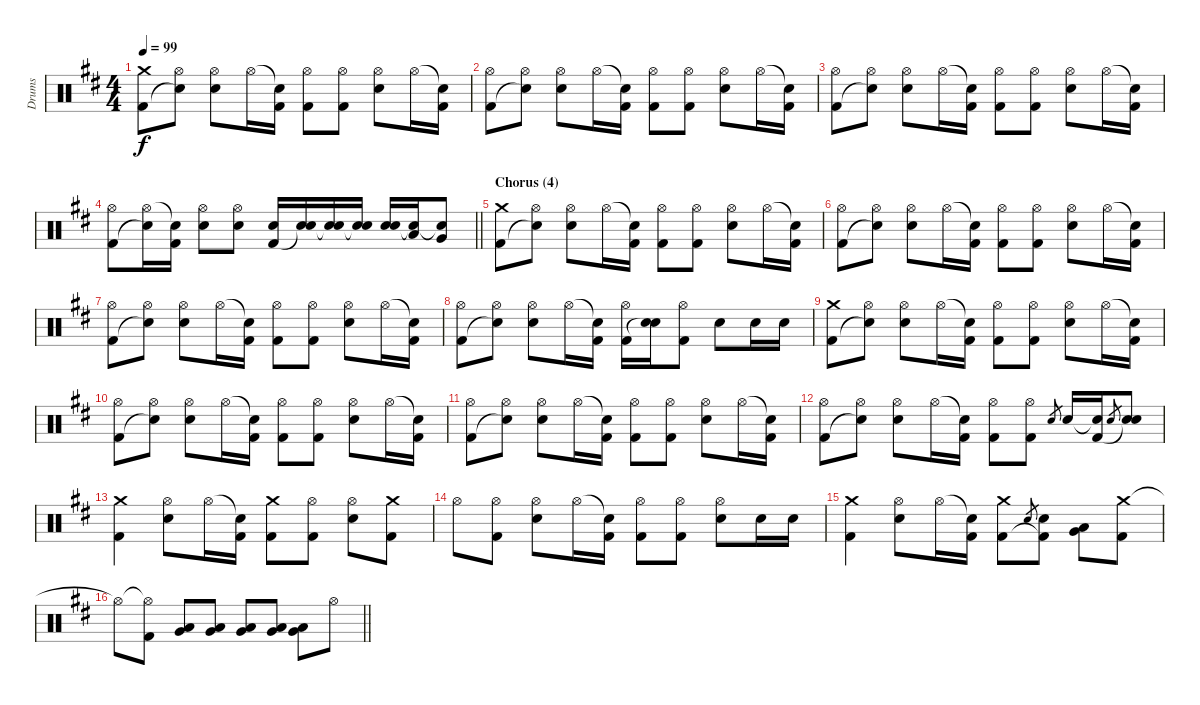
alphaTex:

\track ("Drums" "Drums") {instrument percussion}
\staff {score}
\articulation defaults
\ts (4 4)
\tempo 99
\clef neutral
\ks d
("Crash medium (hit)" "Kick (hit) 2").8{dy f} ("Hi-Hat (open)" "Snare (hit)"{t}).8 ("Hi-Hat (open)" "Electric Snare (hit)").8 "Hi-Hat (open)".16 ("Snare (hit)"{t} "Kick (hit) 2").16 ("Hi-Hat (open)" "Kick (hit) 2").8 ("Hi-Hat (open)" "Kick (hit) 2").8 ("Hi-Hat (open)" "Electric Snare (hit)").8 "Hi-Hat (open)".16 ("Snare (hit)"{t} "Kick (hit) 2").16 |
("Hi-Hat (open)" "Kick (hit) 2").8 ("Hi-Hat (open)" "Snare (hit)"{t}).8 ("Hi-Hat (open)" "Electric Snare (hit)").8 "Hi-Hat (open)".16 ("Snare (hit)"{t} "Kick (hit) 2").16 ("Hi-Hat (open)" "Kick (hit) 2").8 ("Hi-Hat (open)" "Kick (hit) 2").8 ("Hi-Hat (open)" "Electric Snare (hit)").8 "Hi-Hat (open)".16 ("Snare (hit)"{t} "Kick (hit) 2").16 |
("Hi-Hat (open)" "Kick (hit) 2").8 ("Hi-Hat (open)" "Snare (hit)"{t}).8 ("Hi-Hat (open)" "Electric Snare (hit)").8 "Hi-Hat (open)".16 ("Snare (hit)"{t} "Kick (hit) 2").16 ("Hi-Hat (open)" "Kick (hit) 2").8 ("Hi-Hat (open)" "Kick (hit) 2").8 ("Hi-Hat (open)" "Electric Snare (hit)").8 "Hi-Hat (open)".16 ("Snare (hit)"{t} "Kick (hit) 2").16 |
\barLineRight lightlight
("Hi-Hat (open)" "Kick (hit) 2").8 ("Hi-Hat (open)" "Snare (hit)"{t}).16 ("Snare (hit)"{t} "Kick (hit) 2").16 ("Hi-Hat (open)" "Electric Snare (hit)").8 ("Hi-Hat (open)" "Electric Snare (hit)").8 ("Electric Snare (hit)" "Kick (hit) 2").16 ("Electric Snare (hit)" "Snare (hit)"{t}).16 ("Electric Snare (hit)" "Snare (hit)"{t}).16 ("Electric Snare (hit)" "Snare (hit)"{t}).16 ("Electric Snare (hit)" "Electric Snare (hit)").16 ("Low Tom (hit)" "Snare (hit)"{t}).16 ("Very Low Tom (hit)" "Snare (hit)"{t}).8 |
\section ("" "Chorus (4)")
("Crash medium (hit)" "Kick (hit) 2").8 ("Hi-Hat (open)" "Snare (hit)"{t}).8 ("Hi-Hat (open)" "Electric Snare (hit)").8 "Hi-Hat (open)".16 ("Snare (hit)"{t} "Kick (hit) 2").16 ("Hi-Hat (open)" "Kick (hit) 2").8 ("Hi-Hat (open)" "Kick (hit) 2").8 ("Hi-Hat (open)" "Electric Snare (hit)").8 "Hi-Hat (open)".16 ("Snare (hit)"{t} "Kick (hit) 2").16 |
("Hi-Hat (open)" "Kick (hit) 2").8 ("Hi-Hat (open)" "Snare (hit)"{t}).8 ("Hi-Hat (open)" "Electric Snare (hit)").8 "Hi-Hat (open)".16 ("Snare (hit)"{t} "Kick (hit) 2").16 ("Hi-Hat (open)" "Kick (hit) 2").8 ("Hi-Hat (open)" "Kick (hit) 2").8 ("Hi-Hat (open)" "Electric Snare (hit)").8 "Hi-Hat (open)".16 ("Snare (hit)"{t} "Kick (hit) 2").16 |
("Hi-Hat (open)" "Kick (hit) 2").8 ("Hi-Hat (open)" "Snare (hit)"{t}).8 ("Hi-Hat (open)" "Electric Snare (hit)").8 "Hi-Hat (open)".16 ("Snare (hit)"{t} "Kick (hit) 2").16 ("Hi-Hat (open)" "Kick (hit) 2").8 ("Hi-Hat (open)" "Kick (hit) 2").8 ("Hi-Hat (open)" "Electric Snare (hit)").8 "Hi-Hat (open)".16 ("Snare (hit)"{t} "Kick (hit) 2").16 |
("Hi-Hat (open)" "Kick (hit) 2").8 ("Hi-Hat (open)" "Snare (hit)"{t}).8 ("Hi-Hat (open)" "Electric Snare (hit)").8 "Hi-Hat (open)".16 ("Snare (hit)"{t} "Kick (hit) 2").16 ("Hi-Hat (open)" "Kick (hit) 2").16 ("Electric Snare (hit)" "Snare (hit)"{t}).16 ("Hi-Hat (open)" "Kick (hit) 2").8 "Electric Snare (hit)".8 "Electric Snare (hit)".16 "Electric Snare (hit)".16 |
("Crash medium (hit)" "Kick (hit) 2").8 ("Hi-Hat (open)" "Snare (hit)"{t}).8 ("Hi-Hat (open)" "Electric Snare (hit)").8 "Hi-Hat (open)".16 ("Snare (hit)"{t} "Kick (hit) 2").16 ("Hi-Hat (open)" "Kick (hit) 2").8 ("Hi-Hat (open)" "Kick (hit) 2").8 ("Hi-Hat (open)" "Electric Snare (hit)").8 "Hi-Hat (open)".16 ("Snare (hit)"{t} "Kick (hit) 2").16 |
("Hi-Hat (open)" "Kick (hit) 2").8 ("Hi-Hat (open)" "Snare (hit)"{t}).8 ("Hi-Hat (open)" "Electric Snare (hit)").8 "Hi-Hat (open)".16 ("Snare (hit)"{t} "Kick (hit) 2").16 ("Hi-Hat (open)" "Kick (hit) 2").8 ("Hi-Hat (open)" "Kick (hit) 2").8 ("Hi-Hat (open)" "Electric Snare (hit)").8 "Hi-Hat (open)".16 ("Snare (hit)"{t} "Kick (hit) 2").16 |
("Hi-Hat (open)" "Kick (hit) 2").8 ("Hi-Hat (open)" "Snare (hit)"{t}).8 ("Hi-Hat (open)" "Electric Snare (hit)").8 "Hi-Hat (open)".16 ("Snare (hit)"{t} "Kick (hit) 2").16 ("Hi-Hat (open)" "Kick (hit) 2").8 ("Hi-Hat (open)" "Kick (hit) 2").8 ("Hi-Hat (open)" "Electric Snare (hit)").8 "Hi-Hat (open)".16 ("Snare (hit)"{t} "Kick (hit) 2").16 |
("Hi-Hat (open)" "Kick (hit) 2").8 ("Hi-Hat (open)" "Snare (hit)"{t}).8 ("Hi-Hat (open)" "Electric Snare (hit)").8 "Hi-Hat (open)".16 ("Snare (hit)"{t} "Kick (hit) 2").16 ("Hi-Hat (open)" "Kick (hit) 2").8 ("Hi-Hat (open)" "Kick (hit) 2").8 "Electric Snare (hit)".8{gr} "Electric Snare (hit)".16 ("Snare (hit)"{t} "Kick (hit) 2").16 "Electric Snare (hit)".8{gr} ("Electric Snare (hit)" "Snare (hit)"{t}).8 |
("Crash medium (hit)" "Kick (hit) 2").4 ("Hi-Hat (open)" "Electric Snare (hit)").8 "Hi-Hat (open)".16 ("Snare (hit)"{t} "Kick (hit) 2").16 ("Crash medium (hit)" "Kick (hit) 2").8 ("Hi-Hat (open)" "Kick (hit) 2").8 ("Hi-Hat (open)" "Electric Snare (hit)").8 ("Crash medium (hit)" "Kick (hit) 2").8 |
"Hi-Hat (open)".8 ("Hi-Hat (open)" "Kick (hit) 2").8 ("Hi-Hat (open)" "Electric Snare (hit)").8 "Hi-Hat (open)".16 ("Snare (hit)"{t} "Kick (hit) 2").16 ("Hi-Hat (open)" "Kick (hit) 2").8 ("Hi-Hat (open)" "Kick (hit) 2").8 ("Hi-Hat (open)" "Electric Snare (hit)").8 "Electric Snare (hit)".16 "Electric Snare (hit)".16 |
("Crash medium (hit)" "Kick (hit) 2").4 ("Hi-Hat (open)" "Electric Snare (hit)").8 "Hi-Hat (open)".16 ("Snare (hit)"{t} "Kick (hit) 2").16 ("Crash medium (hit)" "Kick (hit) 2").8 "Electric Snare (hit)".8{gr} ("Electric Snare (hit)" "Kick (hit) 2"{t}).8 ("Very Low Tom (hit)" "Low Floor Tom (hit)").8 ("Crash medium (hit)" "Kick (hit) 2").8 |
\barLineRight lightlight "Hi-Hat (open)"{t}.8
("Hi-Hat (open)"{t} "Kick (hit) 2").8 ("Very Low Tom (hit)" "Low Floor Tom (hit)").8 ("Very Low Tom (hit)" "Low Floor Tom (hit)").8 ("Very Low Tom (hit)" "Low Floor Tom (hit)").8 ("Very Low Tom (hit)" "Low Floor Tom (hit)").8 ("Very Low Tom (hit)" "Low Floor Tom (hit)").8 "Hi-Hat (open)".8
